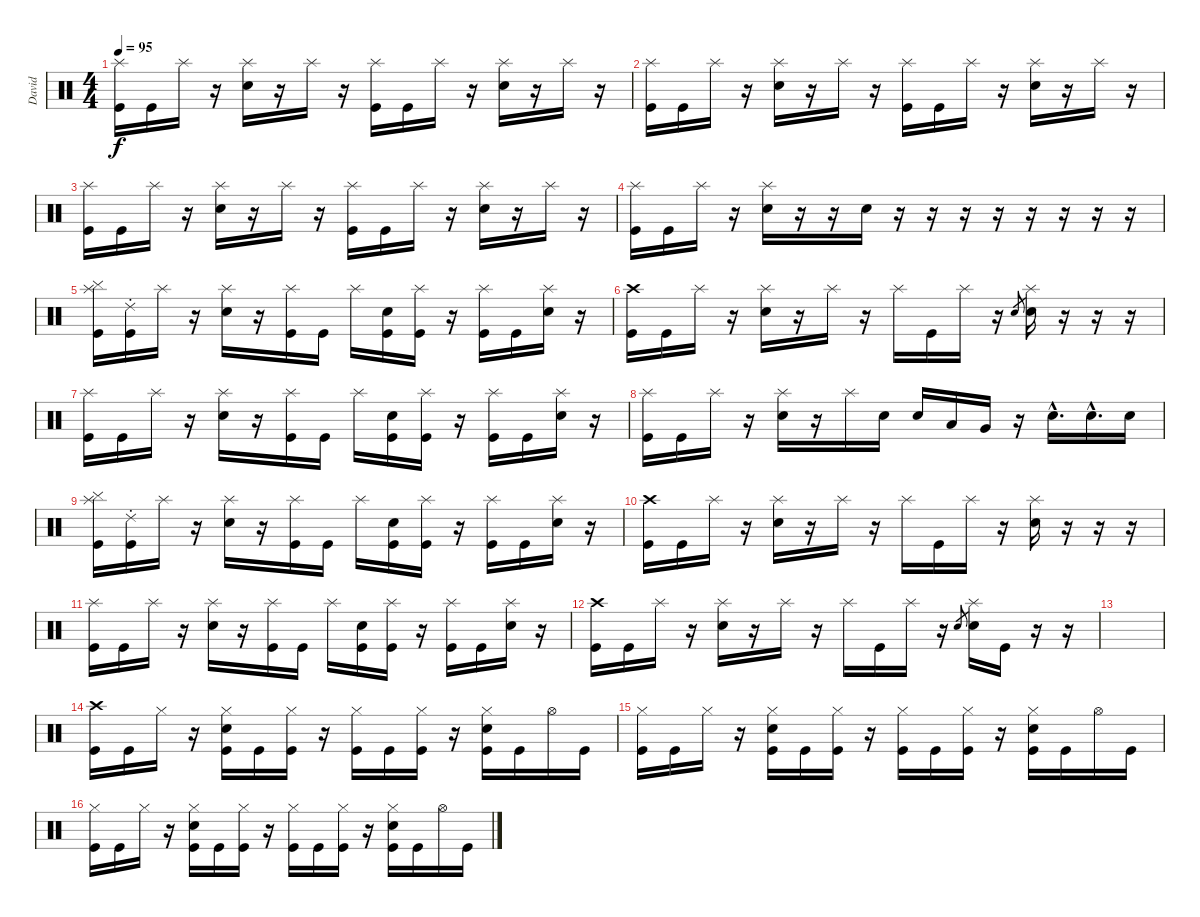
\track ("David" "David") {instrument percussion}
\staff {score}
\articulation defaults
\ts (4 4)
\tempo 95
\clef neutral
\ks c
("Splash (hit)" "Kick (hit)").16{dy f} "Kick (hit)".16 "Splash (hit)".16 r.16 ("Splash (hit)" "Electric Snare (hit)").16 r.16 "Splash (hit)".16 r.16 ("Splash (hit)" "Kick (hit)").16 "Kick (hit)".16 "Splash (hit)".16 r.16 ("Splash (hit)" "Electric Snare (hit)").16 r.16 "Splash (hit)".16 r.16 |
("Splash (hit)" "Kick (hit)").16 "Kick (hit)".16 "Splash (hit)".16 r.16 ("Splash (hit)" "Electric Snare (hit)").16 r.16 "Splash (hit)".16 r.16 ("Splash (hit)" "Kick (hit)").16 "Kick (hit)".16 "Splash (hit)".16 r.16 ("Splash (hit)" "Electric Snare (hit)").16 r.16 "Splash (hit)".16 r.16 |
("Splash (hit)" "Kick (hit)").16 "Kick (hit)".16 "Splash (hit)".16 r.16 ("Splash (hit)" "Electric Snare (hit)").16 r.16 "Splash (hit)".16 r.16 ("Splash (hit)" "Kick (hit)").16 "Kick (hit)".16 "Splash (hit)".16 r.16 ("Splash (hit)" "Electric Snare (hit)").16 r.16 "Splash (hit)".16 r.16 |
("Splash (hit)" "Kick (hit)").16 "Kick (hit)".16 "Splash (hit)".16 r.16 ("Splash (hit)" "Electric Snare (hit)").16 r.16 r.16 "Electric Snare (hit)".16 r.16 r.16 r.16 r.16 r.16 r.16 r.16 r.16 |
("Splash (hit)" "Cymbal (hit)" "Kick (hit)").16 ("Ride (choke) 2" "Kick (hit)").16 "Splash (hit)".16 r.16 ("Splash (hit)" "Electric Snare (hit)").16 r.16 ("Splash (hit)" "Kick (hit)").16 "Kick (hit)".16 "Splash (hit)".16 ("Electric Snare (hit)" "Kick (hit)").16 ("Splash (hit)" "Kick (hit)").16 r.16 ("Splash (hit)" "Kick (hit)").16 "Kick (hit)".16 ("Splash (hit)" "Electric Snare (hit)").16 r.16 |
("Crash high (hit)" "Kick (hit)").16 "Kick (hit)".16 "Splash (hit)".16 r.16 ("Splash (hit)" "Electric Snare (hit)").16 r.16 "Splash (hit)".16 r.16 "Splash (hit)".16 "Kick (hit)".16 "Splash (hit)".16 r.16 "Electric Snare (hit)".8{gr} ("Splash (hit)" "Electric Snare (hit)").16 r.16 r.16 r.16 |
("Splash (hit)" "Kick (hit)").16 "Kick (hit)".16 "Splash (hit)".16 r.16 ("Splash (hit)" "Electric Snare (hit)").16 r.16 ("Splash (hit)" "Kick (hit)").16 "Kick (hit)".16 "Splash (hit)".16 ("Electric Snare (hit)" "Kick (hit)").16 ("Splash (hit)" "Kick (hit)").16 r.16 ("Splash (hit)" "Kick (hit)").16 "Kick (hit)".16 ("Splash (hit)" "Electric Snare (hit)").16 r.16 |
("Splash (hit)" "Kick (hit)").16 "Kick (hit)".16 "Splash (hit)".16 r.16 ("Splash (hit)" "Electric Snare (hit)").16 r.16 "Splash (hit)".16 "Electric Snare (hit)".16 "Electric Snare (hit)".16 "Low Tom (hit)".16 "Very Low Tom (hit)".16 r.16 "Electric Snare (hit)"{hac}.16{d} "Electric Snare (hit)"{hac}.16{d} "Electric Snare (hit)".16 |
("Splash (hit)" "Cymbal (hit)" "Kick (hit)").16 ("Ride (choke) 2" "Kick (hit)").16 "Splash (hit)".16 r.16 ("Splash (hit)" "Electric Snare (hit)").16 r.16 ("Splash (hit)" "Kick (hit)").16 "Kick (hit)".16 "Splash (hit)".16 ("Electric Snare (hit)" "Kick (hit)").16 ("Splash (hit)" "Kick (hit)").16 r.16 ("Splash (hit)" "Kick (hit)").16 "Kick (hit)".16 ("Splash (hit)" "Electric Snare (hit)").16 r.16 |
("Crash high (hit)" "Kick (hit)").16 "Kick (hit)".16 "Splash (hit)".16 r.16 ("Splash (hit)" "Electric Snare (hit)").16 r.16 "Splash (hit)".16 r.16 "Splash (hit)".16 "Kick (hit)".16 "Splash (hit)".16 r.16 ("Splash (hit)" "Electric Snare (hit)").16 r.16 r.16 r.16 |
("Splash (hit)" "Kick (hit)").16 "Kick (hit)".16 "Splash (hit)".16 r.16 ("Splash (hit)" "Electric Snare (hit)").16 r.16 ("Splash (hit)" "Kick (hit)").16 "Kick (hit)".16 "Splash (hit)".16 ("Electric Snare (hit)" "Kick (hit)").16 ("Splash (hit)" "Kick (hit)").16 r.16 ("Splash (hit)" "Kick (hit)").16 "Kick (hit)".16 ("Splash (hit)" "Electric Snare (hit)").16 r.16 |
("Crash high (hit)" "Kick (hit)").16 "Kick (hit)".16 "Splash (hit)".16 r.16 ("Splash (hit)" "Electric Snare (hit)").16 r.16 "Splash (hit)".16 r.16 "Splash (hit)".16 "Kick (hit)".16 "Splash (hit)".16 r.16 "Electric Snare (hit)".8{gr} ("Splash (hit)" "Electric Snare (hit)").16 "Kick (hit)".16 r.16 r.16 |
|
("Crash high (hit)" "Kick (hit)").16 "Kick (hit)".16 "Hi-Hat (closed)".16 r.16 ("Hi-Hat (closed)" "Electric Snare (hit)" "Kick (hit)").16 "Kick (hit)".16 ("Hi-Hat (closed)" "Kick (hit)").16 r.16 ("Hi-Hat (closed)" "Kick (hit)").16 "Kick (hit)".16 ("Hi-Hat (closed)" "Kick (hit)").16 r.16 ("Hi-Hat (closed)" "Electric Snare (hit)" "Kick (hit)").16 "Kick (hit)".16 "Hi-Hat (open)".16 "Kick (hit)".16 |
("Hi-Hat (closed)" "Kick (hit)").16 "Kick (hit)".16 "Hi-Hat (closed)".16 r.16 ("Hi-Hat (closed)" "Electric Snare (hit)" "Kick (hit)").16 "Kick (hit)".16 ("Hi-Hat (closed)" "Kick (hit)").16 r.16 ("Hi-Hat (closed)" "Kick (hit)").16 "Kick (hit)".16 ("Hi-Hat (closed)" "Kick (hit)").16 r.16 ("Hi-Hat (closed)" "Electric Snare (hit)" "Kick (hit)").16 "Kick (hit)".16 "Hi-Hat (open)".16 "Kick (hit)".16 |
("Hi-Hat (closed)" "Kick (hit)").16 "Kick (hit)".16 "Hi-Hat (closed)".16 r.16 ("Hi-Hat (closed)" "Electric Snare (hit)" "Kick (hit)").16 "Kick (hit)".16 ("Hi-Hat (closed)" "Kick (hit)").16 r.16 ("Hi-Hat (closed)" "Kick (hit)").16 "Kick (hit)".16 ("Hi-Hat (closed)" "Kick (hit)").16 r.16 ("Hi-Hat (closed)" "Electric Snare (hit)" "Kick (hit)").16 "Kick (hit)".16 "Hi-Hat (open)".16 "Kick (hit)".16
